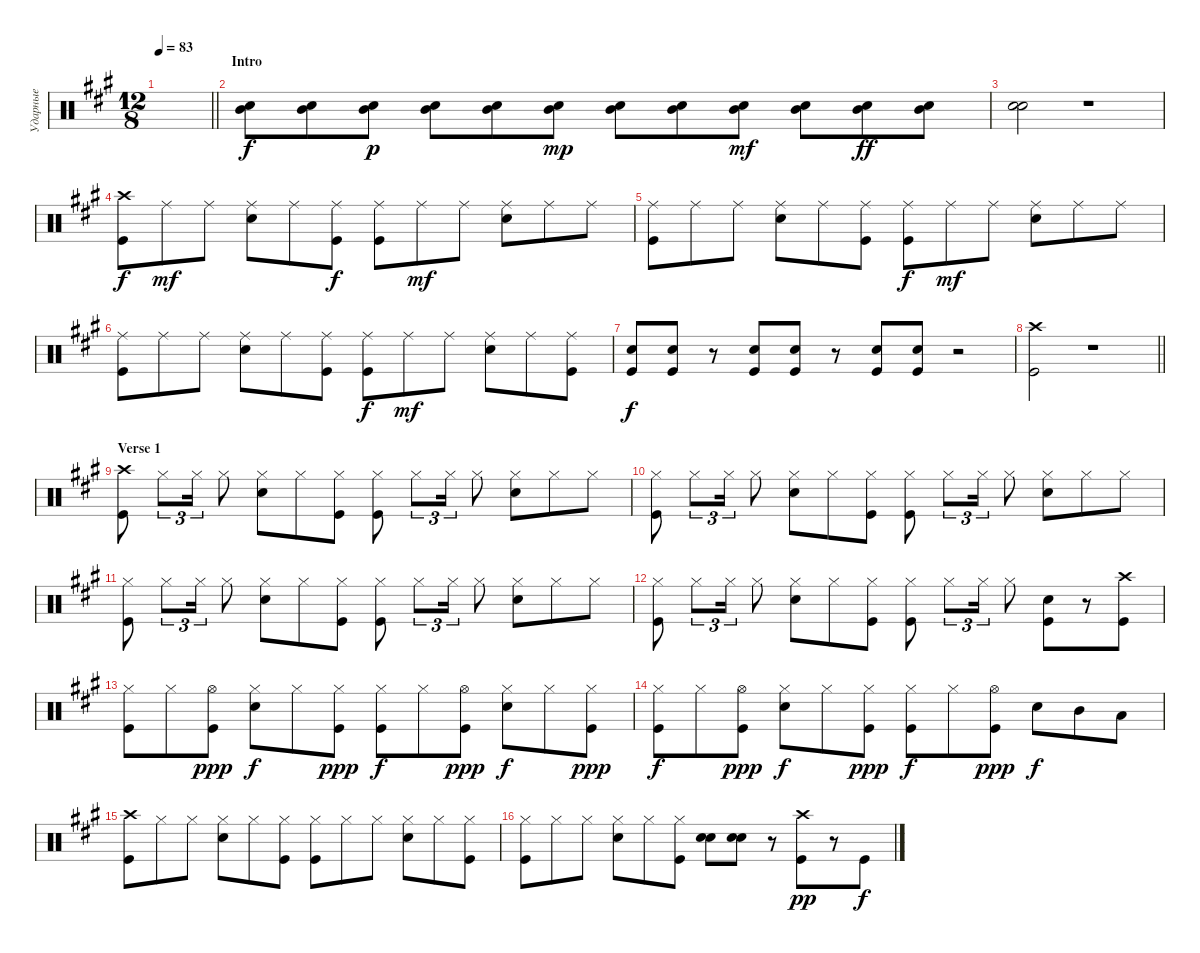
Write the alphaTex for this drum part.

\track ("Ударные" "Ударные") {instrument percussion}
\staff {score}
\articulation defaults
\ts (12 8)
\tempo 83
\clef neutral
\barLineRight lightlight
\ks f#minor
|
\section ("" "Intro")
("Snare (hit) 2" "Mid Tom (hit)").8{bd 60} ("Snare (hit) 2" "Mid Tom (hit)").8{bd 60} ("Snare (hit) 2" "Mid Tom (hit)").8{bd 60 dy p} ("Snare (hit) 2" "Mid Tom (hit)").8{bd 60} ("Snare (hit) 2" "Mid Tom (hit)").8{bd 60} ("Snare (hit) 2" "Mid Tom (hit)").8{bd 60 dy mp} ("Snare (hit) 2" "Mid Tom (hit)").8{bd 60} ("Snare (hit) 2" "Mid Tom (hit)").8{bd 60} ("Snare (hit) 2" "Mid Tom (hit)").8{bd 60 dy mf} ("Snare (hit) 2" "Mid Tom (hit)").8{bd 60} ("Snare (hit) 2" "Mid Tom (hit)").8{bd 60 dy ff} ("Snare (hit) 2" "Mid Tom (hit)").8{bd 60} |
("Snare (hit) 2" "Snare (hit) 2").2{bd 120} r.1 |
("Kick (hit)" "Crash high (hit)").8{dy f} "Ride (middle)".8{dy mf} "Ride (middle)".8 ("Ride (middle)" "Snare (hit) 2").8 "Ride (middle)".8 ("Ride (middle)" "Kick (hit)").8{dy f} ("Kick (hit)" "Ride (middle)").8 "Ride (middle)".8{dy mf} "Ride (middle)".8 ("Ride (middle)" "Snare (hit) 2").8 "Ride (middle)".8 "Ride (middle)".8 |
("Kick (hit)" "Ride (middle)").8 "Ride (middle)".8 "Ride (middle)".8 ("Ride (middle)" "Snare (hit) 2").8 "Ride (middle)".8 ("Ride (middle)" "Kick (hit)").8 ("Kick (hit)" "Ride (middle)").8{dy f} "Ride (middle)".8{dy mf} "Ride (middle)".8 ("Ride (middle)" "Snare (hit) 2").8 "Ride (middle)".8 "Ride (middle)".8 |
("Kick (hit)" "Ride (middle)").8 "Ride (middle)".8 "Ride (middle)".8 ("Ride (middle)" "Snare (hit) 2").8 "Ride (middle)".8 ("Ride (middle)" "Kick (hit)").8 ("Kick (hit)" "Ride (middle)").8{dy f} "Ride (middle)".8{dy mf} "Ride (middle)".8 ("Ride (middle)" "Snare (hit) 2").8 "Ride (middle)".8 ("Ride (middle)" "Kick (hit)").8 |
("Snare (hit) 2" "Kick (hit)").8{dy f} ("Snare (hit) 2" "Kick (hit)").8 r.8 ("Snare (hit) 2" "Kick (hit)").8 ("Snare (hit) 2" "Kick (hit)").8 r.8 ("Snare (hit) 2" "Kick (hit)").8 ("Snare (hit) 2" "Kick (hit)").8 r.2 |
\barLineRight lightlight
("Kick (hit)" "Crash high (hit)").2 r.1 |
\section ("" "Verse 1")
("Kick (hit)" "Crash high (hit)").8 "Hi-Hat (closed)".8{tu (3 2)} "Hi-Hat (closed)".16{tu (3 2)} "Hi-Hat (closed)".8 ("Snare (hit) 2" "Hi-Hat (closed)").8 "Hi-Hat (closed)".8 ("Hi-Hat (closed)" "Kick (hit)").8 ("Kick (hit)" "Hi-Hat (closed)").8 "Hi-Hat (closed)".8{tu (3 2)} "Hi-Hat (closed)".16{tu (3 2)} "Hi-Hat (closed)".8 ("Snare (hit) 2" "Hi-Hat (closed)").8 "Hi-Hat (closed)".8 "Hi-Hat (closed)".8 |
("Kick (hit)" "Hi-Hat (closed)").8 "Hi-Hat (closed)".8{tu (3 2)} "Hi-Hat (closed)".16{tu (3 2)} "Hi-Hat (closed)".8 ("Snare (hit) 2" "Hi-Hat (closed)").8 "Hi-Hat (closed)".8 ("Hi-Hat (closed)" "Kick (hit)").8 ("Kick (hit)" "Hi-Hat (closed)").8 "Hi-Hat (closed)".8{tu (3 2)} "Hi-Hat (closed)".16{tu (3 2)} "Hi-Hat (closed)".8 ("Snare (hit) 2" "Hi-Hat (closed)").8 "Hi-Hat (closed)".8 "Hi-Hat (closed)".8 |
("Kick (hit)" "Hi-Hat (closed)").8 "Hi-Hat (closed)".8{tu (3 2)} "Hi-Hat (closed)".16{tu (3 2)} "Hi-Hat (closed)".8 ("Snare (hit) 2" "Hi-Hat (closed)").8 "Hi-Hat (closed)".8 ("Hi-Hat (closed)" "Kick (hit)").8 ("Kick (hit)" "Hi-Hat (closed)").8 "Hi-Hat (closed)".8{tu (3 2)} "Hi-Hat (closed)".16{tu (3 2)} "Hi-Hat (closed)".8 ("Snare (hit) 2" "Hi-Hat (closed)").8 "Hi-Hat (closed)".8 "Hi-Hat (closed)".8 |
("Kick (hit)" "Hi-Hat (closed)").8 "Hi-Hat (closed)".8{tu (3 2)} "Hi-Hat (closed)".16{tu (3 2)} "Hi-Hat (closed)".8 ("Snare (hit) 2" "Hi-Hat (closed)").8 "Hi-Hat (closed)".8 ("Hi-Hat (closed)" "Kick (hit)").8 ("Kick (hit)" "Hi-Hat (closed)").8 "Hi-Hat (closed)".8{tu (3 2)} "Hi-Hat (closed)".16{tu (3 2)} "Hi-Hat (closed)".8 ("Kick (hit)" "Snare (hit) 2").8{bd 120} r.8 ("Kick (hit)" "Crash high (hit)").8 |
("Kick (hit)" "Hi-Hat (closed)").8 "Hi-Hat (closed)".8 ("Hi-Hat (open)" "Kick (hit)").8{dy ppp} ("Snare (hit) 2" "Hi-Hat (closed)").8{dy f} "Hi-Hat (closed)".8 ("Hi-Hat (closed)" "Kick (hit)").8{dy ppp} ("Kick (hit)" "Hi-Hat (closed)").8{dy f} "Hi-Hat (closed)".8 ("Hi-Hat (open)" "Kick (hit)").8{dy ppp} ("Snare (hit) 2" "Hi-Hat (closed)").8{dy f} "Hi-Hat (closed)".8 ("Hi-Hat (closed)" "Kick (hit)").8{dy ppp} |
("Kick (hit)" "Hi-Hat (closed)").8{dy f} "Hi-Hat (closed)".8 ("Hi-Hat (open)" "Kick (hit)").8{dy ppp} ("Snare (hit) 2" "Hi-Hat (closed)").8{dy f} "Hi-Hat (closed)".8 ("Hi-Hat (closed)" "Kick (hit)").8{dy ppp} ("Kick (hit)" "Hi-Hat (closed)").8{dy f} "Hi-Hat (closed)".8 ("Hi-Hat (open)" "Kick (hit)").8{dy ppp} "Snare (hit) 2".8{dy f} "Mid Tom (hit)".8 "Low Tom (hit)".8 |
("Kick (hit)" "Crash high (hit)").8 "Hi-Hat (closed)".8 "Hi-Hat (closed)".8 ("Hi-Hat (closed)" "Snare (hit) 2").8 "Hi-Hat (closed)".8 ("Hi-Hat (closed)" "Kick (hit)").8 ("Hi-Hat (closed)" "Kick (hit)").8 "Hi-Hat (closed)".8 "Hi-Hat (closed)".8 ("Hi-Hat (closed)" "Snare (hit) 2").8 "Hi-Hat (closed)".8 ("Hi-Hat (closed)" "Kick (hit)").8 |
("Kick (hit)" "Hi-Hat (closed)").8 "Hi-Hat (closed)".8 "Hi-Hat (closed)".8 ("Hi-Hat (closed)" "Snare (hit) 2").8 "Hi-Hat (closed)".8 ("Hi-Hat (closed)" "Kick (hit)").8 ("Snare (hit) 2" "Snare (hit) 2").8{bd 120} ("Snare (hit) 2" "Snare (hit) 2").8{bd 120} r.8 ("Kick (hit)" "Crash high (hit)").8{dy pp} r.8 "Kick (hit)".8{dy f}
